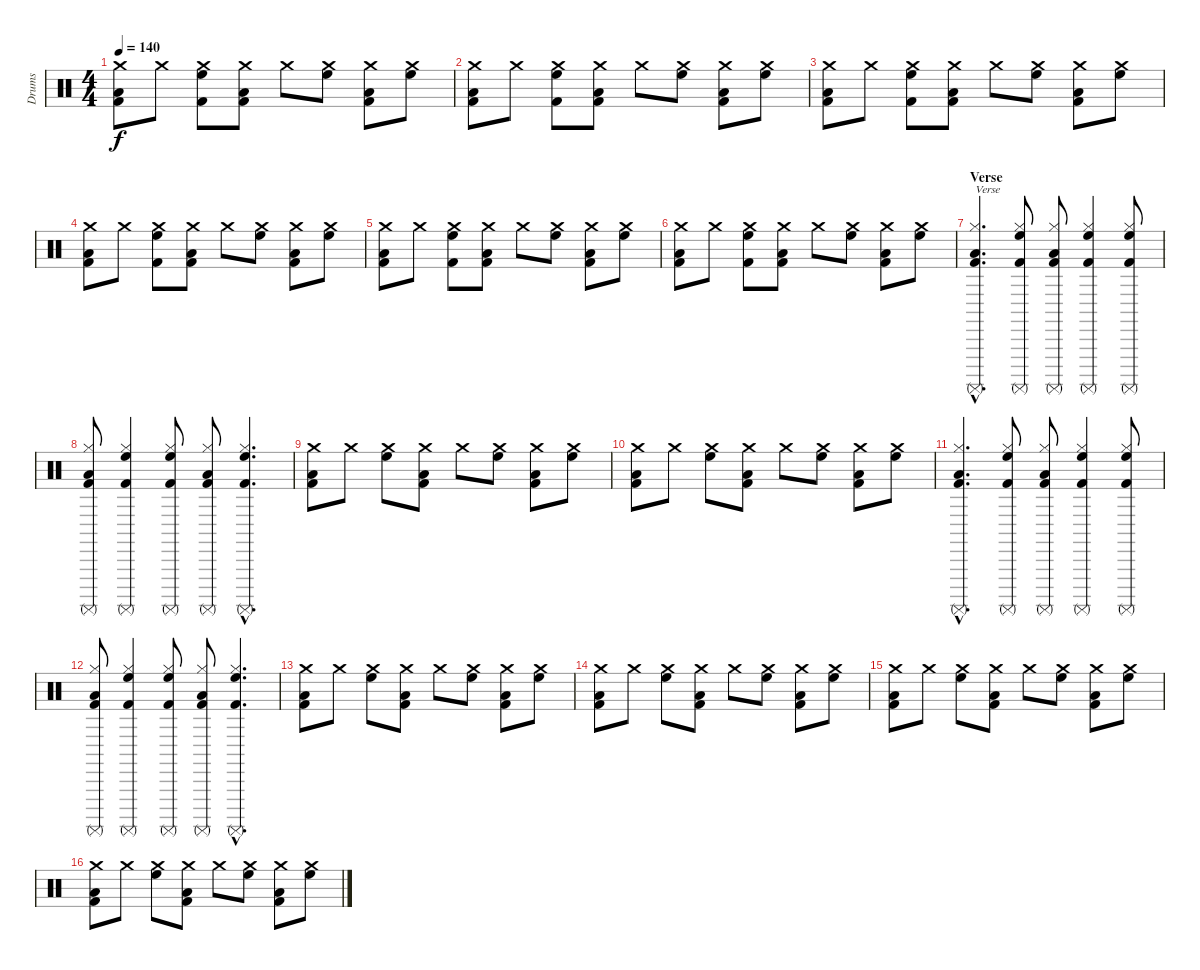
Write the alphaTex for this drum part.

\track ("Drums" "Drums") {instrument percussion}
\staff {score}
\articulation defaults
\ts (4 4)
\tempo 140
\clef neutral
\ks c
("Low Tom (hit)" "Crash medium (hit)" "Kick (hit) 2").8{dy f} "Crash medium (hit)".8 ("High Floor Tom (hit)" "Crash medium (hit)" "Kick (hit) 2").8 ("Low Tom (hit)" "Crash medium (hit)" "Kick (hit) 2").8 "Crash medium (hit)".8 ("High Floor Tom (hit)" "Crash medium (hit)").8 ("Low Tom (hit)" "Crash medium (hit)" "Kick (hit) 2").8 ("High Floor Tom (hit)" "Crash medium (hit)").8 |
("Low Tom (hit)" "Crash medium (hit)" "Kick (hit) 2").8 "Crash medium (hit)".8 ("High Floor Tom (hit)" "Crash medium (hit)" "Kick (hit) 2").8 ("Low Tom (hit)" "Crash medium (hit)" "Kick (hit) 2").8 "Crash medium (hit)".8 ("High Floor Tom (hit)" "Crash medium (hit)").8 ("Low Tom (hit)" "Crash medium (hit)" "Kick (hit) 2").8 ("High Floor Tom (hit)" "Crash medium (hit)").8 |
("Low Tom (hit)" "Crash medium (hit)" "Kick (hit) 2").8 "Crash medium (hit)".8 ("High Floor Tom (hit)" "Crash medium (hit)" "Kick (hit) 2").8 ("Low Tom (hit)" "Crash medium (hit)" "Kick (hit) 2").8 "Crash medium (hit)".8 ("High Floor Tom (hit)" "Crash medium (hit)").8 ("Low Tom (hit)" "Crash medium (hit)" "Kick (hit) 2").8 ("High Floor Tom (hit)" "Crash medium (hit)").8 |
("Low Tom (hit)" "Crash medium (hit)" "Kick (hit) 2").8 "Crash medium (hit)".8 ("High Floor Tom (hit)" "Crash medium (hit)" "Kick (hit) 2").8 ("Low Tom (hit)" "Crash medium (hit)" "Kick (hit) 2").8 "Crash medium (hit)".8 ("High Floor Tom (hit)" "Crash medium (hit)").8 ("Low Tom (hit)" "Crash medium (hit)" "Kick (hit) 2").8 ("High Floor Tom (hit)" "Crash medium (hit)").8 |
("Low Tom (hit)" "Crash medium (hit)" "Kick (hit) 2").8 "Crash medium (hit)".8 ("High Floor Tom (hit)" "Crash medium (hit)" "Kick (hit) 2").8 ("Low Tom (hit)" "Crash medium (hit)" "Kick (hit) 2").8 "Crash medium (hit)".8 ("High Floor Tom (hit)" "Crash medium (hit)").8 ("Low Tom (hit)" "Crash medium (hit)" "Kick (hit) 2").8 ("High Floor Tom (hit)" "Crash medium (hit)").8 |
("Low Tom (hit)" "Crash medium (hit)" "Kick (hit) 2").8 "Crash medium (hit)".8 ("High Floor Tom (hit)" "Crash medium (hit)" "Kick (hit) 2").8 ("Low Tom (hit)" "Crash medium (hit)" "Kick (hit) 2").8 "Crash medium (hit)".8 ("High Floor Tom (hit)" "Crash medium (hit)").8 ("Low Tom (hit)" "Crash medium (hit)" "Kick (hit) 2").8 ("High Floor Tom (hit)" "Crash medium (hit)").8 |
\section ("" "Verse")
("Low Tom (hit)"{hac} "Hi-Hat (closed)"{hac} "Kick (hit) 2"{hac} "Surdo (mute)"{hac}).4{d txt "Verse"} ("High Floor Tom (hit)" "Hi-Hat (closed)" "Kick (hit) 2" "Surdo (mute)").8 ("Low Tom (hit)" "Hi-Hat (closed)" "Kick (hit) 2" "Surdo (mute)").8 ("High Floor Tom (hit)" "Hi-Hat (closed)" "Kick (hit) 2" "Surdo (mute)").4 ("High Floor Tom (hit)" "Hi-Hat (closed)" "Kick (hit) 2" "Surdo (mute)").8 |
("Low Tom (hit)" "Hi-Hat (closed)" "Kick (hit) 2" "Surdo (mute)").8 ("High Floor Tom (hit)" "Hi-Hat (closed)" "Kick (hit) 2" "Surdo (mute)").4 ("High Floor Tom (hit)" "Hi-Hat (closed)" "Kick (hit) 2" "Surdo (mute)").8 ("Low Tom (hit)" "Hi-Hat (closed)" "Kick (hit) 2" "Surdo (mute)").8 ("High Floor Tom (hit)"{hac} "Hi-Hat (closed)"{hac} "Kick (hit) 2"{hac} "Surdo (mute)"{hac}).4{d} |
("Low Tom (hit)" "Crash medium (hit)" "Kick (hit) 2").8 "Crash medium (hit)".8 ("High Floor Tom (hit)" "Crash medium (hit)").8 ("Low Tom (hit)" "Crash medium (hit)" "Kick (hit) 2").8 "Crash medium (hit)".8 ("High Floor Tom (hit)" "Crash medium (hit)").8 ("Low Tom (hit)" "Crash medium (hit)" "Kick (hit) 2").8 ("High Floor Tom (hit)" "Crash medium (hit)").8 |
("Low Tom (hit)" "Crash medium (hit)" "Kick (hit) 2").8 "Crash medium (hit)".8 ("High Floor Tom (hit)" "Crash medium (hit)").8 ("Low Tom (hit)" "Crash medium (hit)" "Kick (hit) 2").8 "Crash medium (hit)".8 ("High Floor Tom (hit)" "Crash medium (hit)").8 ("Low Tom (hit)" "Crash medium (hit)" "Kick (hit) 2").8 ("High Floor Tom (hit)" "Crash medium (hit)").8 |
("Low Tom (hit)"{hac} "Hi-Hat (closed)"{hac} "Kick (hit) 2"{hac} "Surdo (mute)"{hac}).4{d} ("High Floor Tom (hit)" "Hi-Hat (closed)" "Kick (hit) 2" "Surdo (mute)").8 ("Low Tom (hit)" "Hi-Hat (closed)" "Kick (hit) 2" "Surdo (mute)").8 ("High Floor Tom (hit)" "Hi-Hat (closed)" "Kick (hit) 2" "Surdo (mute)").4 ("High Floor Tom (hit)" "Hi-Hat (closed)" "Kick (hit) 2" "Surdo (mute)").8 |
("Low Tom (hit)" "Hi-Hat (closed)" "Kick (hit) 2" "Surdo (mute)").8 ("High Floor Tom (hit)" "Hi-Hat (closed)" "Kick (hit) 2" "Surdo (mute)").4 ("High Floor Tom (hit)" "Hi-Hat (closed)" "Kick (hit) 2" "Surdo (mute)").8 ("Low Tom (hit)" "Hi-Hat (closed)" "Kick (hit) 2" "Surdo (mute)").8 ("High Floor Tom (hit)"{hac} "Hi-Hat (closed)"{hac} "Kick (hit) 2"{hac} "Surdo (mute)"{hac}).4{d} |
("Low Tom (hit)" "Crash medium (hit)" "Kick (hit) 2").8 "Crash medium (hit)".8 ("High Floor Tom (hit)" "Crash medium (hit)").8 ("Low Tom (hit)" "Crash medium (hit)" "Kick (hit) 2").8 "Crash medium (hit)".8 ("High Floor Tom (hit)" "Crash medium (hit)").8 ("Low Tom (hit)" "Crash medium (hit)" "Kick (hit) 2").8 ("High Floor Tom (hit)" "Crash medium (hit)").8 |
("Low Tom (hit)" "Crash medium (hit)" "Kick (hit) 2").8 "Crash medium (hit)".8 ("High Floor Tom (hit)" "Crash medium (hit)").8 ("Low Tom (hit)" "Crash medium (hit)" "Kick (hit) 2").8 "Crash medium (hit)".8 ("High Floor Tom (hit)" "Crash medium (hit)").8 ("Low Tom (hit)" "Crash medium (hit)" "Kick (hit) 2").8 ("High Floor Tom (hit)" "Crash medium (hit)").8 |
("Low Tom (hit)" "Crash medium (hit)" "Kick (hit) 2").8 "Crash medium (hit)".8 ("High Floor Tom (hit)" "Crash medium (hit)").8 ("Low Tom (hit)" "Crash medium (hit)" "Kick (hit) 2").8 "Crash medium (hit)".8 ("High Floor Tom (hit)" "Crash medium (hit)").8 ("Low Tom (hit)" "Crash medium (hit)" "Kick (hit) 2").8 ("High Floor Tom (hit)" "Crash medium (hit)").8 |
("Low Tom (hit)" "Crash medium (hit)" "Kick (hit) 2").8 "Crash medium (hit)".8 ("High Floor Tom (hit)" "Crash medium (hit)").8 ("Low Tom (hit)" "Crash medium (hit)" "Kick (hit) 2").8 "Crash medium (hit)".8 ("High Floor Tom (hit)" "Crash medium (hit)").8 ("Low Tom (hit)" "Crash medium (hit)" "Kick (hit) 2").8 ("High Floor Tom (hit)" "Crash medium (hit)").8
